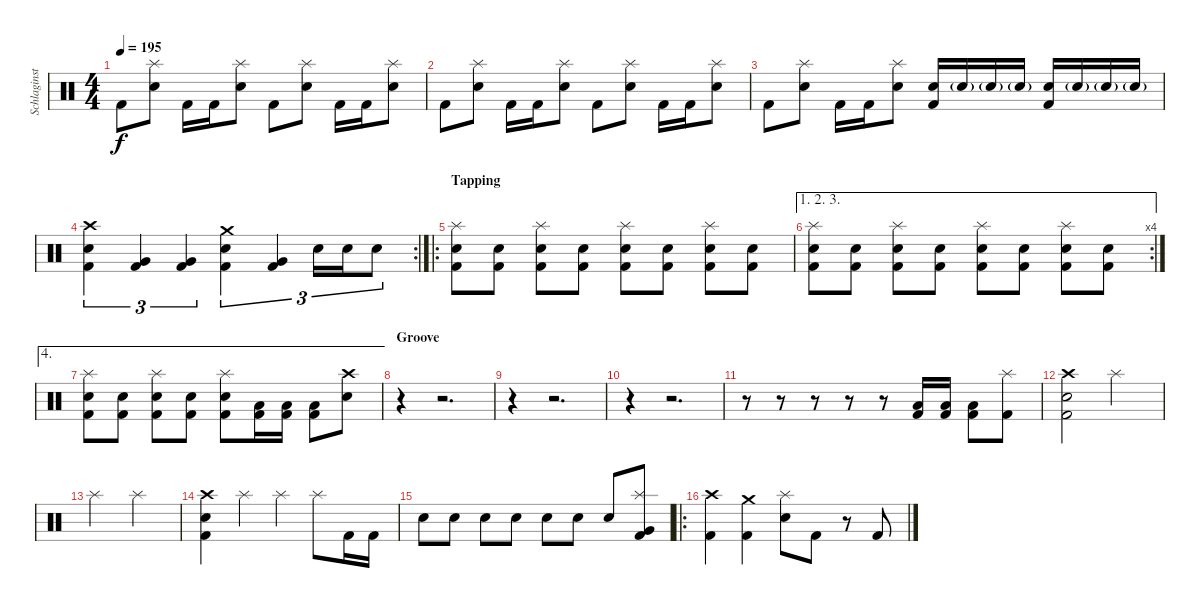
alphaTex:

\track ("Schlaginstrumente - Auswahl" "Schlaginst") {instrument percussion}
\staff {score}
\articulation defaults
\ts (4 4)
\tempo 195
\clef neutral
\ks c "Kick (hit) 2".8{dy f}
("Snare (hit) 2" "Splash (hit)").8 "Kick (hit) 2".16 "Kick (hit) 2".16 ("Snare (hit) 2" "Splash (hit)").8 "Kick (hit) 2".8 ("Snare (hit) 2" "Splash (hit)").8 "Kick (hit) 2".16 "Kick (hit) 2".16 ("Snare (hit) 2" "Splash (hit)").8 |
"Kick (hit) 2".8 ("Snare (hit) 2" "Splash (hit)").8 "Kick (hit) 2".16 "Kick (hit) 2".16 ("Snare (hit) 2" "Splash (hit)").8 "Kick (hit) 2".8 ("Snare (hit) 2" "Splash (hit)").8 "Kick (hit) 2".16 "Kick (hit) 2".16 ("Snare (hit) 2" "Splash (hit)").8 |
"Kick (hit) 2".8 ("Snare (hit) 2" "Splash (hit)").8 "Kick (hit) 2".16 "Kick (hit) 2".16 ("Snare (hit) 2" "Splash (hit)").8 ("Snare (hit) 2" "Kick (hit) 2").16 "Snare (hit) 2"{g}.16 "Snare (hit) 2"{g}.16 "Snare (hit) 2"{g}.16 ("Snare (hit) 2" "Kick (hit) 2").16 "Snare (hit) 2"{g}.16 "Snare (hit) 2"{g}.16 "Snare (hit) 2"{g}.16 |
\rc 2
("Snare (hit) 2" "Crash high (hit)" "Kick (hit) 2").4{tu (3 2)} ("Very Low Tom (hit)" "Kick (hit) 2").4{tu (3 2)} ("Very Low Tom (hit)" "Kick (hit) 2").4{tu (3 2)} ("Snare (hit) 2" "Crash medium (hit)" "Kick (hit) 2").4{tu (3 2)} ("Very Low Tom (hit)" "Kick (hit) 2").4{tu (3 2)} "Snare (hit) 2".16{tu (3 2)} "Snare (hit) 2".16{tu (3 2)} "Snare (hit) 2".8{tu (3 2)} |
\ro
\section ("" "Tapping")
("Snare (hit) 2" "Splash (hit)" "Kick (hit) 2").8 ("Snare (hit) 2" "Kick (hit) 2").8 ("Snare (hit) 2" "Splash (hit)" "Kick (hit) 2").8 ("Snare (hit) 2" "Kick (hit) 2").8 ("Snare (hit) 2" "Splash (hit)" "Kick (hit) 2").8 ("Snare (hit) 2" "Kick (hit) 2").8 ("Snare (hit) 2" "Splash (hit)" "Kick (hit) 2").8 ("Snare (hit) 2" "Kick (hit) 2").8 |
\ae (1 2 3)
\rc 4
("Snare (hit) 2" "Splash (hit)" "Kick (hit) 2").8 ("Snare (hit) 2" "Kick (hit) 2").8 ("Snare (hit) 2" "Splash (hit)" "Kick (hit) 2").8 ("Snare (hit) 2" "Kick (hit) 2").8 ("Snare (hit) 2" "Splash (hit)" "Kick (hit) 2").8 ("Snare (hit) 2" "Kick (hit) 2").8 ("Snare (hit) 2" "Splash (hit)" "Kick (hit) 2").8 ("Snare (hit) 2" "Kick (hit) 2").8 |
\ae 4
("Snare (hit) 2" "Splash (hit)" "Kick (hit) 2").8 ("Snare (hit) 2" "Kick (hit) 2").8 ("Snare (hit) 2" "Splash (hit)" "Kick (hit) 2").8 ("Snare (hit) 2" "Kick (hit) 2").8 ("Snare (hit) 2" "Splash (hit)" "Kick (hit) 2").8 ("Low Tom (hit)" "Kick (hit) 2").16 ("Low Tom (hit)" "Kick (hit) 2").16 ("Low Tom (hit)" "Kick (hit) 2").8 ("Snare (hit) 2" "Crash high (hit)").8 |
\section ("" "Groove")
r.4 r.2{d} |
r.4 r.2{d} |
r.4 r.2{d} |
r.8 r.8 r.8 r.8 r.8 ("Low Tom (hit)" "Kick (hit) 2").16 ("Low Tom (hit)" "Kick (hit) 2").16 ("Low Tom (hit)" "Kick (hit) 2").8 ("Splash (hit)" "Kick (hit) 2").8 |
("Snare (hit) 2" "Crash high (hit)" "Kick (hit) 2").2 "Splash (hit)".2 |
"Splash (hit)".2 "Splash (hit)".2 |
("Snare (hit) 2" "Crash high (hit)" "Kick (hit) 2").4 "Splash (hit)".4 "Splash (hit)".4 "Splash (hit)".8 "Kick (hit) 2".16 "Kick (hit) 2".16 |
"Snare (hit) 2".8 "Snare (hit) 2".8 "Snare (hit) 2".8 "Snare (hit) 2".8 "Snare (hit) 2".8 "Snare (hit) 2".8 "Snare (hit) 2".8 ("Splash (hit)" "Very Low Tom (hit)" "Kick (hit) 2").8 |
\ro
("Crash high (hit)" "Kick (hit) 2").4 ("Crash medium (hit)" "Kick (hit) 2").4 ("Snare (hit) 2" "Splash (hit)").8 "Kick (hit) 2".8 r.8 "Kick (hit) 2".8
